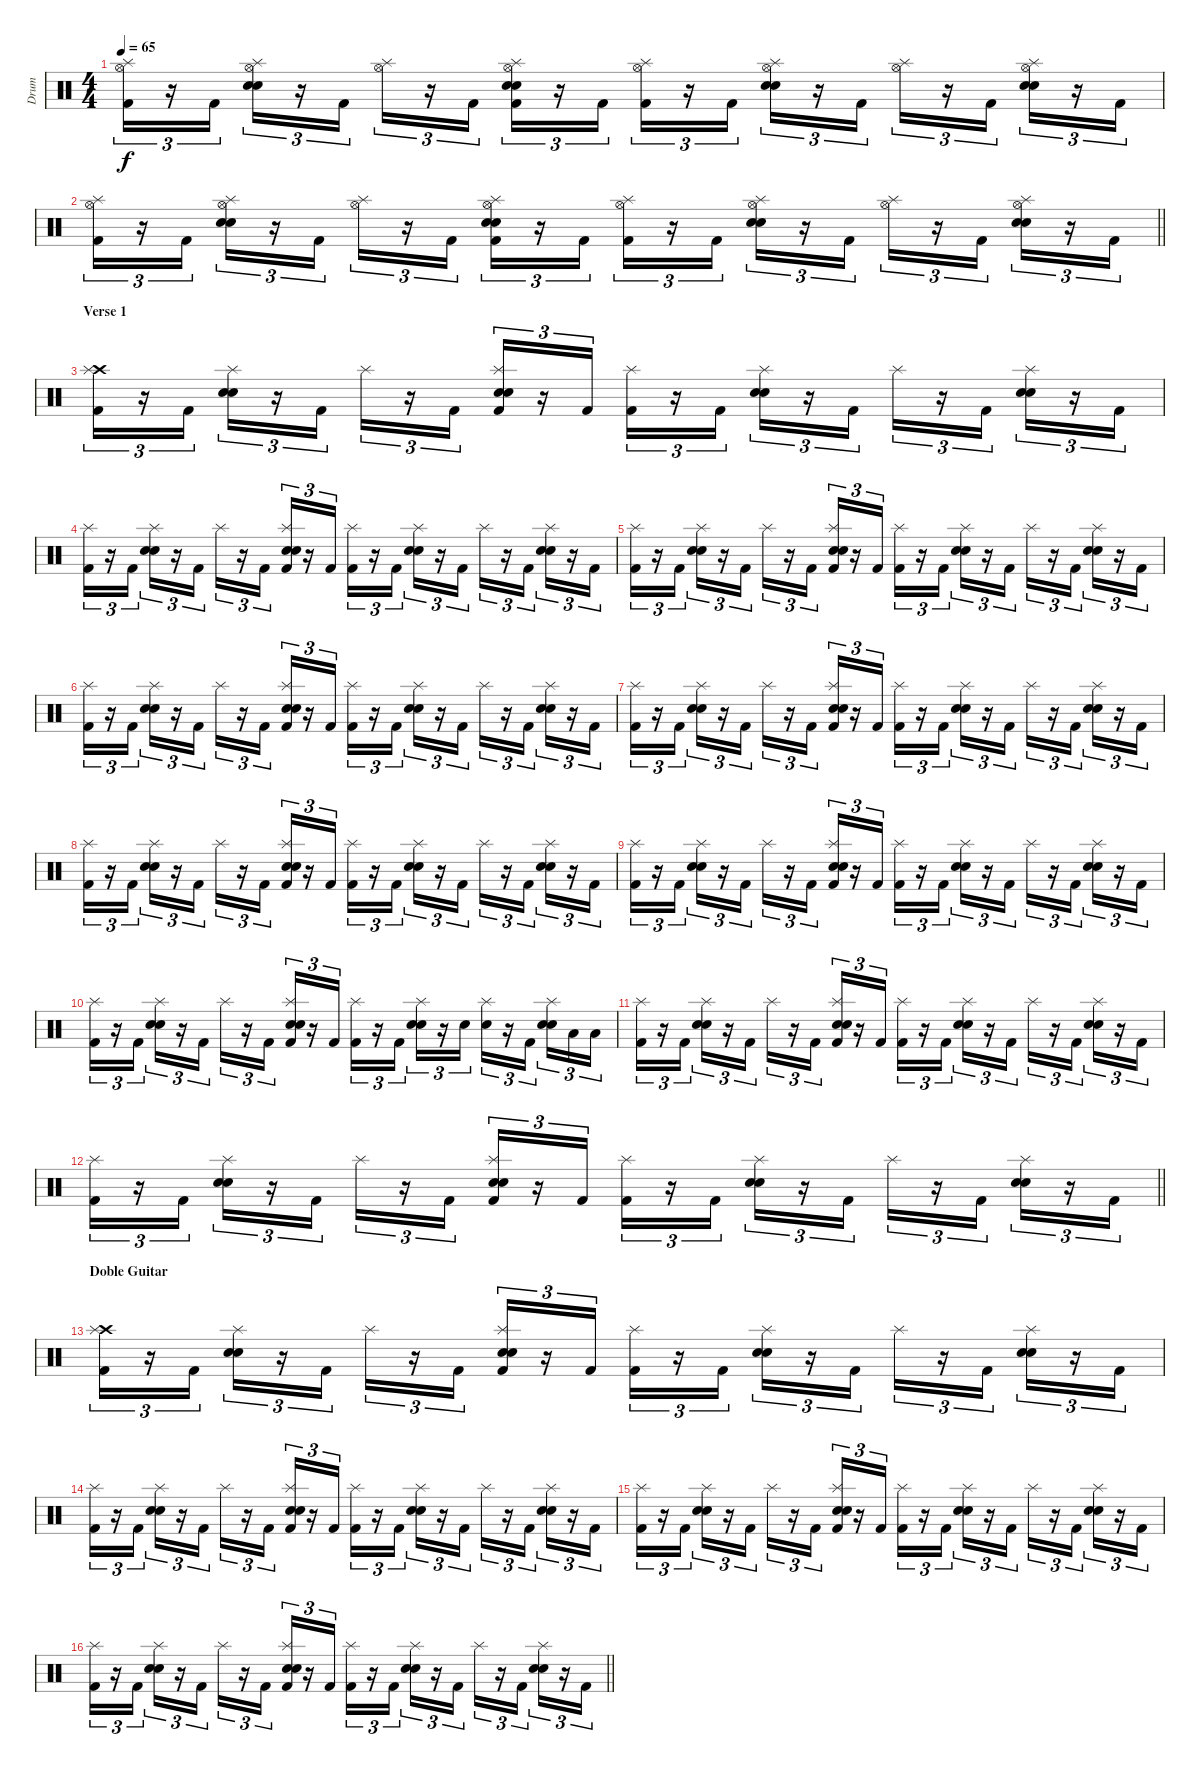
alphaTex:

\track ("Drum" "Drum") {instrument percussion}
\staff {score}
\articulation defaults
\ts (4 4)
\tempo 65
\clef neutral
\ks c
("Hi-Hat (open)" "Kick (hit) 2" "Splash (hit)").16{tu (3 2) dy f} r.16{tu (3 2)} "Kick (hit) 2".16{tu (3 2)} ("Hi-Hat (open)" "Electric Snare (hit)" "Electric Snare (hit)" "Splash (hit)").16{tu (3 2)} r.16{tu (3 2)} "Kick (hit) 2".16{tu (3 2)} ("Hi-Hat (open)" "Splash (hit)").16{tu (3 2)} r.16{tu (3 2)} "Kick (hit) 2".16{tu (3 2)} ("Hi-Hat (open)" "Electric Snare (hit)" "Electric Snare (hit)" "Kick (hit) 2" "Splash (hit)").16{tu (3 2)} r.16{tu (3 2)} "Kick (hit) 2".16{tu (3 2)} ("Hi-Hat (open)" "Kick (hit) 2" "Splash (hit)").16{tu (3 2)} r.16{tu (3 2)} "Kick (hit) 2".16{tu (3 2)} ("Hi-Hat (open)" "Electric Snare (hit)" "Electric Snare (hit)" "Splash (hit)").16{tu (3 2)} r.16{tu (3 2)} "Kick (hit) 2".16{tu (3 2)} ("Hi-Hat (open)" "Splash (hit)").16{tu (3 2)} r.16{tu (3 2)} "Kick (hit) 2".16{tu (3 2)} ("Hi-Hat (open)" "Electric Snare (hit)" "Electric Snare (hit)" "Splash (hit)").16{tu (3 2)} r.16{tu (3 2)} "Kick (hit) 2".16{tu (3 2)} |
\barLineRight lightlight
("Hi-Hat (open)" "Kick (hit) 2" "Splash (hit)").16{tu (3 2)} r.16{tu (3 2)} "Kick (hit) 2".16{tu (3 2)} ("Hi-Hat (open)" "Electric Snare (hit)" "Electric Snare (hit)" "Splash (hit)").16{tu (3 2)} r.16{tu (3 2)} "Kick (hit) 2".16{tu (3 2)} ("Hi-Hat (open)" "Splash (hit)").16{tu (3 2)} r.16{tu (3 2)} "Kick (hit) 2".16{tu (3 2)} ("Hi-Hat (open)" "Electric Snare (hit)" "Electric Snare (hit)" "Kick (hit) 2" "Splash (hit)").16{tu (3 2)} r.16{tu (3 2)} "Kick (hit) 2".16{tu (3 2)} ("Hi-Hat (open)" "Kick (hit) 2" "Splash (hit)").16{tu (3 2)} r.16{tu (3 2)} "Kick (hit) 2".16{tu (3 2)} ("Hi-Hat (open)" "Electric Snare (hit)" "Electric Snare (hit)" "Splash (hit)").16{tu (3 2)} r.16{tu (3 2)} "Kick (hit) 2".16{tu (3 2)} ("Hi-Hat (open)" "Splash (hit)").16{tu (3 2)} r.16{tu (3 2)} "Kick (hit) 2".16{tu (3 2)} ("Hi-Hat (open)" "Electric Snare (hit)" "Electric Snare (hit)" "Splash (hit)").16{tu (3 2)} r.16{tu (3 2)} "Kick (hit) 2".16{tu (3 2)} |
\section ("" "Verse 1")
("Crash high (hit)" "Kick (hit) 2" "Splash (hit)").16{tu (3 2)} r.16{tu (3 2)} "Kick (hit) 2".16{tu (3 2)} ("Electric Snare (hit)" "Electric Snare (hit)" "Splash (hit)").16{tu (3 2)} r.16{tu (3 2)} "Kick (hit) 2".16{tu (3 2)} "Splash (hit)".16{tu (3 2)} r.16{tu (3 2)} "Kick (hit) 2".16{tu (3 2)} ("Electric Snare (hit)" "Electric Snare (hit)" "Kick (hit) 2" "Splash (hit)").16{tu (3 2)} r.16{tu (3 2)} "Kick (hit) 2".16{tu (3 2)} ("Kick (hit) 2" "Splash (hit)").16{tu (3 2)} r.16{tu (3 2)} "Kick (hit) 2".16{tu (3 2)} ("Electric Snare (hit)" "Electric Snare (hit)" "Splash (hit)").16{tu (3 2)} r.16{tu (3 2)} "Kick (hit) 2".16{tu (3 2)} "Splash (hit)".16{tu (3 2)} r.16{tu (3 2)} "Kick (hit) 2".16{tu (3 2)} ("Electric Snare (hit)" "Electric Snare (hit)" "Splash (hit)").16{tu (3 2)} r.16{tu (3 2)} "Kick (hit) 2".16{tu (3 2)} |
("Kick (hit) 2" "Splash (hit)").16{tu (3 2)} r.16{tu (3 2)} "Kick (hit) 2".16{tu (3 2)} ("Electric Snare (hit)" "Electric Snare (hit)" "Splash (hit)").16{tu (3 2)} r.16{tu (3 2)} "Kick (hit) 2".16{tu (3 2)} "Splash (hit)".16{tu (3 2)} r.16{tu (3 2)} "Kick (hit) 2".16{tu (3 2)} ("Electric Snare (hit)" "Electric Snare (hit)" "Kick (hit) 2" "Splash (hit)").16{tu (3 2)} r.16{tu (3 2)} "Kick (hit) 2".16{tu (3 2)} ("Kick (hit) 2" "Splash (hit)").16{tu (3 2)} r.16{tu (3 2)} "Kick (hit) 2".16{tu (3 2)} ("Electric Snare (hit)" "Electric Snare (hit)" "Splash (hit)").16{tu (3 2)} r.16{tu (3 2)} "Kick (hit) 2".16{tu (3 2)} "Splash (hit)".16{tu (3 2)} r.16{tu (3 2)} "Kick (hit) 2".16{tu (3 2)} ("Electric Snare (hit)" "Electric Snare (hit)" "Splash (hit)").16{tu (3 2)} r.16{tu (3 2)} "Kick (hit) 2".16{tu (3 2)} |
("Kick (hit) 2" "Splash (hit)").16{tu (3 2)} r.16{tu (3 2)} "Kick (hit) 2".16{tu (3 2)} ("Electric Snare (hit)" "Electric Snare (hit)" "Splash (hit)").16{tu (3 2)} r.16{tu (3 2)} "Kick (hit) 2".16{tu (3 2)} "Splash (hit)".16{tu (3 2)} r.16{tu (3 2)} "Kick (hit) 2".16{tu (3 2)} ("Electric Snare (hit)" "Electric Snare (hit)" "Kick (hit) 2" "Splash (hit)").16{tu (3 2)} r.16{tu (3 2)} "Kick (hit) 2".16{tu (3 2)} ("Kick (hit) 2" "Splash (hit)").16{tu (3 2)} r.16{tu (3 2)} "Kick (hit) 2".16{tu (3 2)} ("Electric Snare (hit)" "Electric Snare (hit)" "Splash (hit)").16{tu (3 2)} r.16{tu (3 2)} "Kick (hit) 2".16{tu (3 2)} "Splash (hit)".16{tu (3 2)} r.16{tu (3 2)} "Kick (hit) 2".16{tu (3 2)} ("Electric Snare (hit)" "Electric Snare (hit)" "Splash (hit)").16{tu (3 2)} r.16{tu (3 2)} "Kick (hit) 2".16{tu (3 2)} |
("Kick (hit) 2" "Splash (hit)").16{tu (3 2)} r.16{tu (3 2)} "Kick (hit) 2".16{tu (3 2)} ("Electric Snare (hit)" "Electric Snare (hit)" "Splash (hit)").16{tu (3 2)} r.16{tu (3 2)} "Kick (hit) 2".16{tu (3 2)} "Splash (hit)".16{tu (3 2)} r.16{tu (3 2)} "Kick (hit) 2".16{tu (3 2)} ("Electric Snare (hit)" "Electric Snare (hit)" "Kick (hit) 2" "Splash (hit)").16{tu (3 2)} r.16{tu (3 2)} "Kick (hit) 2".16{tu (3 2)} ("Kick (hit) 2" "Splash (hit)").16{tu (3 2)} r.16{tu (3 2)} "Kick (hit) 2".16{tu (3 2)} ("Electric Snare (hit)" "Electric Snare (hit)" "Splash (hit)").16{tu (3 2)} r.16{tu (3 2)} "Kick (hit) 2".16{tu (3 2)} "Splash (hit)".16{tu (3 2)} r.16{tu (3 2)} "Kick (hit) 2".16{tu (3 2)} ("Electric Snare (hit)" "Electric Snare (hit)" "Splash (hit)").16{tu (3 2)} r.16{tu (3 2)} "Kick (hit) 2".16{tu (3 2)} |
("Kick (hit) 2" "Splash (hit)").16{tu (3 2)} r.16{tu (3 2)} "Kick (hit) 2".16{tu (3 2)} ("Electric Snare (hit)" "Electric Snare (hit)" "Splash (hit)").16{tu (3 2)} r.16{tu (3 2)} "Kick (hit) 2".16{tu (3 2)} "Splash (hit)".16{tu (3 2)} r.16{tu (3 2)} "Kick (hit) 2".16{tu (3 2)} ("Electric Snare (hit)" "Electric Snare (hit)" "Kick (hit) 2" "Splash (hit)").16{tu (3 2)} r.16{tu (3 2)} "Kick (hit) 2".16{tu (3 2)} ("Kick (hit) 2" "Splash (hit)").16{tu (3 2)} r.16{tu (3 2)} "Kick (hit) 2".16{tu (3 2)} ("Electric Snare (hit)" "Electric Snare (hit)" "Splash (hit)").16{tu (3 2)} r.16{tu (3 2)} "Kick (hit) 2".16{tu (3 2)} "Splash (hit)".16{tu (3 2)} r.16{tu (3 2)} "Kick (hit) 2".16{tu (3 2)} ("Electric Snare (hit)" "Electric Snare (hit)" "Splash (hit)").16{tu (3 2)} r.16{tu (3 2)} "Kick (hit) 2".16{tu (3 2)} |
("Kick (hit) 2" "Splash (hit)").16{tu (3 2)} r.16{tu (3 2)} "Kick (hit) 2".16{tu (3 2)} ("Electric Snare (hit)" "Electric Snare (hit)" "Splash (hit)").16{tu (3 2)} r.16{tu (3 2)} "Kick (hit) 2".16{tu (3 2)} "Splash (hit)".16{tu (3 2)} r.16{tu (3 2)} "Kick (hit) 2".16{tu (3 2)} ("Electric Snare (hit)" "Electric Snare (hit)" "Kick (hit) 2" "Splash (hit)").16{tu (3 2)} r.16{tu (3 2)} "Kick (hit) 2".16{tu (3 2)} ("Kick (hit) 2" "Splash (hit)").16{tu (3 2)} r.16{tu (3 2)} "Kick (hit) 2".16{tu (3 2)} ("Electric Snare (hit)" "Electric Snare (hit)" "Splash (hit)").16{tu (3 2)} r.16{tu (3 2)} "Kick (hit) 2".16{tu (3 2)} "Splash (hit)".16{tu (3 2)} r.16{tu (3 2)} "Kick (hit) 2".16{tu (3 2)} ("Electric Snare (hit)" "Electric Snare (hit)" "Splash (hit)").16{tu (3 2)} r.16{tu (3 2)} "Kick (hit) 2".16{tu (3 2)} |
("Kick (hit) 2" "Splash (hit)").16{tu (3 2)} r.16{tu (3 2)} "Kick (hit) 2".16{tu (3 2)} ("Electric Snare (hit)" "Electric Snare (hit)" "Splash (hit)").16{tu (3 2)} r.16{tu (3 2)} "Kick (hit) 2".16{tu (3 2)} "Splash (hit)".16{tu (3 2)} r.16{tu (3 2)} "Kick (hit) 2".16{tu (3 2)} ("Electric Snare (hit)" "Electric Snare (hit)" "Kick (hit) 2" "Splash (hit)").16{tu (3 2)} r.16{tu (3 2)} "Kick (hit) 2".16{tu (3 2)} ("Kick (hit) 2" "Splash (hit)").16{tu (3 2)} r.16{tu (3 2)} "Kick (hit) 2".16{tu (3 2)} ("Electric Snare (hit)" "Electric Snare (hit)" "Splash (hit)").16{tu (3 2)} r.16{tu (3 2)} "Kick (hit) 2".16{tu (3 2)} "Splash (hit)".16{tu (3 2)} r.16{tu (3 2)} "Kick (hit) 2".16{tu (3 2)} ("Electric Snare (hit)" "Electric Snare (hit)" "Splash (hit)").16{tu (3 2)} r.16{tu (3 2)} "Kick (hit) 2".16{tu (3 2)} |
("Kick (hit) 2" "Splash (hit)").16{tu (3 2)} r.16{tu (3 2)} "Kick (hit) 2".16{tu (3 2)} ("Electric Snare (hit)" "Electric Snare (hit)" "Splash (hit)").16{tu (3 2)} r.16{tu (3 2)} "Kick (hit) 2".16{tu (3 2)} "Splash (hit)".16{tu (3 2)} r.16{tu (3 2)} "Kick (hit) 2".16{tu (3 2)} ("Electric Snare (hit)" "Electric Snare (hit)" "Kick (hit) 2" "Splash (hit)").16{tu (3 2)} r.16{tu (3 2)} "Kick (hit) 2".16{tu (3 2)} ("Kick (hit) 2" "Splash (hit)").16{tu (3 2)} r.16{tu (3 2)} "Kick (hit) 2".16{tu (3 2)} ("Electric Snare (hit)" "Electric Snare (hit)" "Splash (hit)").16{tu (3 2)} r.16{tu (3 2)} "Electric Snare (hit)".16{tu (3 2)} ("Electric Snare (hit)" "Splash (hit)").16{tu (3 2)} r.16{tu (3 2)} "Kick (hit) 2".16{tu (3 2) beam splitsecondary} ("Electric Snare (hit)" "Electric Snare (hit)" "Splash (hit)").16{tu (3 2)} "Low Tom (hit)".16{tu (3 2)} "Low Tom (hit)".16{tu (3 2)} |
("Kick (hit) 2" "Splash (hit)").16{tu (3 2)} r.16{tu (3 2)} "Kick (hit) 2".16{tu (3 2)} ("Electric Snare (hit)" "Electric Snare (hit)" "Splash (hit)").16{tu (3 2)} r.16{tu (3 2)} "Kick (hit) 2".16{tu (3 2)} "Splash (hit)".16{tu (3 2)} r.16{tu (3 2)} "Kick (hit) 2".16{tu (3 2)} ("Electric Snare (hit)" "Electric Snare (hit)" "Kick (hit) 2" "Splash (hit)").16{tu (3 2)} r.16{tu (3 2)} "Kick (hit) 2".16{tu (3 2)} ("Kick (hit) 2" "Splash (hit)").16{tu (3 2)} r.16{tu (3 2)} "Kick (hit) 2".16{tu (3 2)} ("Electric Snare (hit)" "Electric Snare (hit)" "Splash (hit)").16{tu (3 2)} r.16{tu (3 2)} "Kick (hit) 2".16{tu (3 2)} "Splash (hit)".16{tu (3 2)} r.16{tu (3 2)} "Kick (hit) 2".16{tu (3 2)} ("Electric Snare (hit)" "Electric Snare (hit)" "Splash (hit)").16{tu (3 2)} r.16{tu (3 2)} "Kick (hit) 2".16{tu (3 2)} |
\barLineRight lightlight
("Kick (hit) 2" "Splash (hit)").16{tu (3 2)} r.16{tu (3 2)} "Kick (hit) 2".16{tu (3 2)} ("Electric Snare (hit)" "Electric Snare (hit)" "Splash (hit)").16{tu (3 2)} r.16{tu (3 2)} "Kick (hit) 2".16{tu (3 2)} "Splash (hit)".16{tu (3 2)} r.16{tu (3 2)} "Kick (hit) 2".16{tu (3 2)} ("Electric Snare (hit)" "Electric Snare (hit)" "Kick (hit) 2" "Splash (hit)").16{tu (3 2)} r.16{tu (3 2)} "Kick (hit) 2".16{tu (3 2)} ("Kick (hit) 2" "Splash (hit)").16{tu (3 2)} r.16{tu (3 2)} "Kick (hit) 2".16{tu (3 2)} ("Electric Snare (hit)" "Electric Snare (hit)" "Splash (hit)").16{tu (3 2)} r.16{tu (3 2)} "Kick (hit) 2".16{tu (3 2)} "Splash (hit)".16{tu (3 2)} r.16{tu (3 2)} "Kick (hit) 2".16{tu (3 2)} ("Electric Snare (hit)" "Electric Snare (hit)" "Splash (hit)").16{tu (3 2)} r.16{tu (3 2)} "Kick (hit) 2".16{tu (3 2)} |
\section ("" "Doble Guitar")
("Crash high (hit)" "Kick (hit) 2" "Splash (hit)").16{tu (3 2)} r.16{tu (3 2)} "Kick (hit) 2".16{tu (3 2)} ("Electric Snare (hit)" "Electric Snare (hit)" "Splash (hit)").16{tu (3 2)} r.16{tu (3 2)} "Kick (hit) 2".16{tu (3 2)} "Splash (hit)".16{tu (3 2)} r.16{tu (3 2)} "Kick (hit) 2".16{tu (3 2)} ("Electric Snare (hit)" "Electric Snare (hit)" "Kick (hit) 2" "Splash (hit)").16{tu (3 2)} r.16{tu (3 2)} "Kick (hit) 2".16{tu (3 2)} ("Kick (hit) 2" "Splash (hit)").16{tu (3 2)} r.16{tu (3 2)} "Kick (hit) 2".16{tu (3 2)} ("Electric Snare (hit)" "Electric Snare (hit)" "Splash (hit)").16{tu (3 2)} r.16{tu (3 2)} "Kick (hit) 2".16{tu (3 2)} "Splash (hit)".16{tu (3 2)} r.16{tu (3 2)} "Kick (hit) 2".16{tu (3 2)} ("Electric Snare (hit)" "Electric Snare (hit)" "Splash (hit)").16{tu (3 2)} r.16{tu (3 2)} "Kick (hit) 2".16{tu (3 2)} |
("Kick (hit) 2" "Splash (hit)").16{tu (3 2)} r.16{tu (3 2)} "Kick (hit) 2".16{tu (3 2)} ("Electric Snare (hit)" "Electric Snare (hit)" "Splash (hit)").16{tu (3 2)} r.16{tu (3 2)} "Kick (hit) 2".16{tu (3 2)} "Splash (hit)".16{tu (3 2)} r.16{tu (3 2)} "Kick (hit) 2".16{tu (3 2)} ("Electric Snare (hit)" "Electric Snare (hit)" "Kick (hit) 2" "Splash (hit)").16{tu (3 2)} r.16{tu (3 2)} "Kick (hit) 2".16{tu (3 2)} ("Kick (hit) 2" "Splash (hit)").16{tu (3 2)} r.16{tu (3 2)} "Kick (hit) 2".16{tu (3 2)} ("Electric Snare (hit)" "Electric Snare (hit)" "Splash (hit)").16{tu (3 2)} r.16{tu (3 2)} "Kick (hit) 2".16{tu (3 2)} "Splash (hit)".16{tu (3 2)} r.16{tu (3 2)} "Kick (hit) 2".16{tu (3 2)} ("Electric Snare (hit)" "Electric Snare (hit)" "Splash (hit)").16{tu (3 2)} r.16{tu (3 2)} "Kick (hit) 2".16{tu (3 2)} |
("Kick (hit) 2" "Splash (hit)").16{tu (3 2)} r.16{tu (3 2)} "Kick (hit) 2".16{tu (3 2)} ("Electric Snare (hit)" "Electric Snare (hit)" "Splash (hit)").16{tu (3 2)} r.16{tu (3 2)} "Kick (hit) 2".16{tu (3 2)} "Splash (hit)".16{tu (3 2)} r.16{tu (3 2)} "Kick (hit) 2".16{tu (3 2)} ("Electric Snare (hit)" "Electric Snare (hit)" "Kick (hit) 2" "Splash (hit)").16{tu (3 2)} r.16{tu (3 2)} "Kick (hit) 2".16{tu (3 2)} ("Kick (hit) 2" "Splash (hit)").16{tu (3 2)} r.16{tu (3 2)} "Kick (hit) 2".16{tu (3 2)} ("Electric Snare (hit)" "Electric Snare (hit)" "Splash (hit)").16{tu (3 2)} r.16{tu (3 2)} "Kick (hit) 2".16{tu (3 2)} "Splash (hit)".16{tu (3 2)} r.16{tu (3 2)} "Kick (hit) 2".16{tu (3 2)} ("Electric Snare (hit)" "Electric Snare (hit)" "Splash (hit)").16{tu (3 2)} r.16{tu (3 2)} "Kick (hit) 2".16{tu (3 2)} |
\barLineRight lightlight
("Kick (hit) 2" "Splash (hit)").16{tu (3 2)} r.16{tu (3 2)} "Kick (hit) 2".16{tu (3 2)} ("Electric Snare (hit)" "Electric Snare (hit)" "Splash (hit)").16{tu (3 2)} r.16{tu (3 2)} "Kick (hit) 2".16{tu (3 2)} "Splash (hit)".16{tu (3 2)} r.16{tu (3 2)} "Kick (hit) 2".16{tu (3 2)} ("Electric Snare (hit)" "Electric Snare (hit)" "Kick (hit) 2" "Splash (hit)").16{tu (3 2)} r.16{tu (3 2)} "Kick (hit) 2".16{tu (3 2)} ("Kick (hit) 2" "Splash (hit)").16{tu (3 2)} r.16{tu (3 2)} "Kick (hit) 2".16{tu (3 2)} ("Electric Snare (hit)" "Electric Snare (hit)" "Splash (hit)").16{tu (3 2)} r.16{tu (3 2)} "Kick (hit) 2".16{tu (3 2)} "Splash (hit)".16{tu (3 2)} r.16{tu (3 2)} "Kick (hit) 2".16{tu (3 2)} ("Electric Snare (hit)" "Electric Snare (hit)" "Splash (hit)").16{tu (3 2)} r.16{tu (3 2)} "Kick (hit) 2".16{tu (3 2)}
